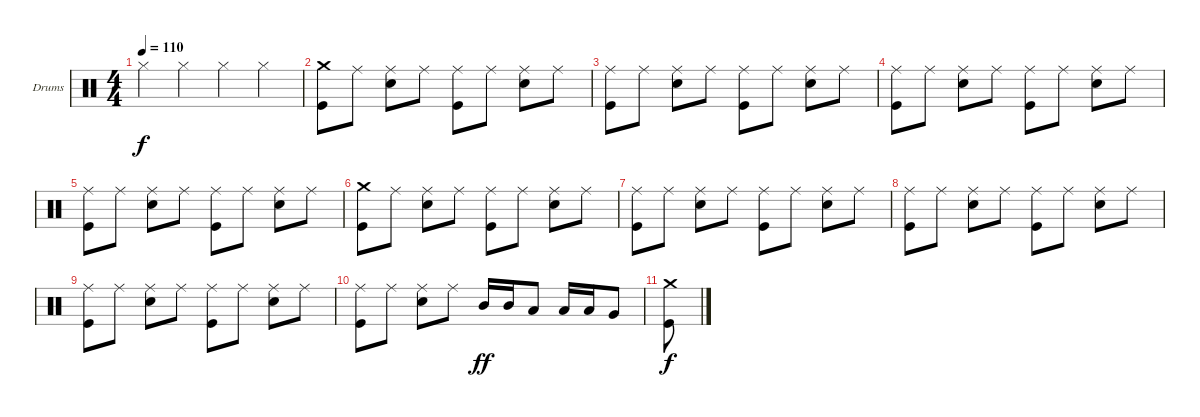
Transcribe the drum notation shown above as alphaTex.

\defaultSystemsLayout 4
\bracketExtendMode groupsimilarinstruments
\firstSystemTrackNameOrientation horizontal
\otherSystemsTrackNameOrientation horizontal
\track ("Drumkit" "Drums") {instrument percussion}
\staff {score}
\articulation defaults
\ts (4 4)
\tempo 110
\clef neutral
\ks c "Hi-Hat (closed)".4{dy f} "Hi-Hat (closed)".4 "Hi-Hat (closed)".4 "Hi-Hat (closed)".4
|
\scale
0.472222 ("Crash medium (hit)" "Kick (hit)").8 "Ride (middle)".8 ("Ride (middle)" "Snare (hit) 2").8 "Ride (middle)".8 ("Ride (middle)" "Kick (hit)").8 "Ride (middle)".8 ("Ride (middle)" "Snare (hit) 2").8 "Ride (middle)".8 |
\scale
0.263889 ("Kick (hit)" "Ride (middle)").8 "Ride (middle)".8 ("Ride (middle)" "Snare (hit) 2").8 "Ride (middle)".8 ("Ride (middle)" "Kick (hit)").8 "Ride (middle)".8 ("Ride (middle)" "Snare (hit) 2").8 "Ride (middle)".8 |
\scale
0.263889 ("Kick (hit)" "Ride (middle)").8 "Ride (middle)".8 ("Ride (middle)" "Snare (hit) 2").8 "Ride (middle)".8 ("Ride (middle)" "Kick (hit)").8 "Ride (middle)".8 ("Ride (middle)" "Snare (hit) 2").8 "Ride (middle)".8 |
\scale
0.333333 ("Kick (hit)" "Ride (middle)").8 "Ride (middle)".8 ("Ride (middle)" "Snare (hit) 2").8 "Ride (middle)".8 ("Ride (middle)" "Kick (hit)").8 "Ride (middle)".8 ("Ride (middle)" "Snare (hit) 2").8 "Ride (middle)".8 |
\scale
0.333333 ("Crash medium (hit)" "Kick (hit)").8 "Ride (middle)".8 ("Ride (middle)" "Snare (hit) 2").8 "Ride (middle)".8 ("Ride (middle)" "Kick (hit)").8 "Ride (middle)".8 ("Ride (middle)" "Snare (hit) 2").8 "Ride (middle)".8 |
\scale
0.333333 ("Kick (hit)" "Ride (middle)").8 "Ride (middle)".8 ("Ride (middle)" "Snare (hit) 2").8 "Ride (middle)".8 ("Ride (middle)" "Kick (hit)").8 "Ride (middle)".8 ("Ride (middle)" "Snare (hit) 2").8 "Ride (middle)".8 |
\scale
0.333333 ("Kick (hit)" "Ride (middle)").8 "Ride (middle)".8 ("Ride (middle)" "Snare (hit) 2").8 "Ride (middle)".8 ("Ride (middle)" "Kick (hit)").8 "Ride (middle)".8 ("Ride (middle)" "Snare (hit) 2").8 "Ride (middle)".8 |
\scale
0.333333 ("Kick (hit)" "Ride (middle)").8 "Ride (middle)".8 ("Ride (middle)" "Snare (hit) 2").8 "Ride (middle)".8 ("Ride (middle)" "Kick (hit)").8 "Ride (middle)".8 ("Ride (middle)" "Snare (hit) 2").8 "Ride (middle)".8 |
\scale
0.333333 ("Kick (hit)" "Ride (middle)").8 "Ride (middle)".8 ("Ride (middle)" "Snare (hit) 2").8 "Ride (middle)".8 "Mid Tom (hit)".16{dy ff} "Mid Tom (hit)".16 "Low Tom (hit)".8 "Low Tom (hit)".16 "Low Tom (hit)".16 "Very Low Tom (hit)".8 |
("Crash medium (hit)" "Kick (hit)").8{dy f}
